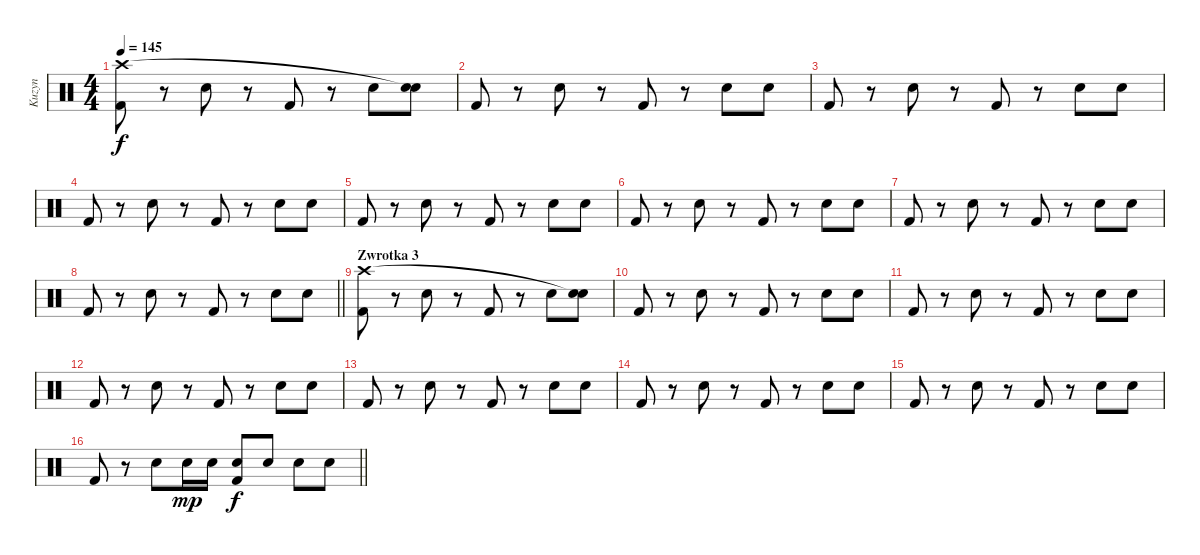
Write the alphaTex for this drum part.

\track ("Kuzyn" "Kuzyn") {instrument percussion}
\staff {score}
\articulation defaults
\ts (4 4)
\tempo 145
\clef neutral
\ks c
("Kick (hit) 2" "Crash high (hit)").8{dy f} r.8 "Snare (hit) 2".8 r.8 "Kick (hit) 2".8 r.8 "Snare (hit) 2".8 ("Snare (hit) 2" "Snare (hit)"{t}).8 |
"Kick (hit) 2".8 r.8 "Snare (hit) 2".8 r.8 "Kick (hit) 2".8 r.8 "Snare (hit) 2".8 "Snare (hit) 2".8 |
"Kick (hit) 2".8 r.8 "Snare (hit) 2".8 r.8 "Kick (hit) 2".8 r.8 "Snare (hit) 2".8 "Snare (hit) 2".8 |
"Kick (hit) 2".8 r.8 "Snare (hit) 2".8 r.8 "Kick (hit) 2".8 r.8 "Snare (hit) 2".8 "Snare (hit) 2".8 |
"Kick (hit) 2".8 r.8 "Snare (hit) 2".8 r.8 "Kick (hit) 2".8 r.8 "Snare (hit) 2".8 "Snare (hit) 2".8 |
"Kick (hit) 2".8 r.8 "Snare (hit) 2".8 r.8 "Kick (hit) 2".8 r.8 "Snare (hit) 2".8 "Snare (hit) 2".8 |
"Kick (hit) 2".8 r.8 "Snare (hit) 2".8 r.8 "Kick (hit) 2".8 r.8 "Snare (hit) 2".8 "Snare (hit) 2".8 |
\barLineRight lightlight "Kick (hit) 2".8
r.8 "Snare (hit) 2".8 r.8 "Kick (hit) 2".8 r.8 "Snare (hit) 2".8 "Snare (hit) 2".8 |
\section ("" "Zwrotka 3")
("Kick (hit) 2" "Crash high (hit)").8 r.8 "Snare (hit) 2".8 r.8 "Kick (hit) 2".8 r.8 "Snare (hit) 2".8 ("Snare (hit) 2" "Snare (hit)"{t}).8 |
"Kick (hit) 2".8 r.8 "Snare (hit) 2".8 r.8 "Kick (hit) 2".8 r.8 "Snare (hit) 2".8 "Snare (hit) 2".8 |
"Kick (hit) 2".8 r.8 "Snare (hit) 2".8 r.8 "Kick (hit) 2".8 r.8 "Snare (hit) 2".8 "Snare (hit) 2".8 |
"Kick (hit) 2".8 r.8 "Snare (hit) 2".8 r.8 "Kick (hit) 2".8 r.8 "Snare (hit) 2".8 "Snare (hit) 2".8 |
"Kick (hit) 2".8 r.8 "Snare (hit) 2".8 r.8 "Kick (hit) 2".8 r.8 "Snare (hit) 2".8 "Snare (hit) 2".8 |
"Kick (hit) 2".8 r.8 "Snare (hit) 2".8 r.8 "Kick (hit) 2".8 r.8 "Snare (hit) 2".8 "Snare (hit) 2".8 |
"Kick (hit) 2".8 r.8 "Snare (hit) 2".8 r.8 "Kick (hit) 2".8 r.8 "Snare (hit) 2".8 "Snare (hit) 2".8 |
\barLineRight lightlight "Kick (hit) 2".8
r.8 "Snare (hit) 2".8 "Snare (hit) 2".16{dy mp} "Snare (hit) 2".16 ("Snare (hit) 2" "Kick (hit) 2").8{dy f} "Snare (hit) 2".8 "Snare (hit) 2".8 "Snare (hit) 2".8
